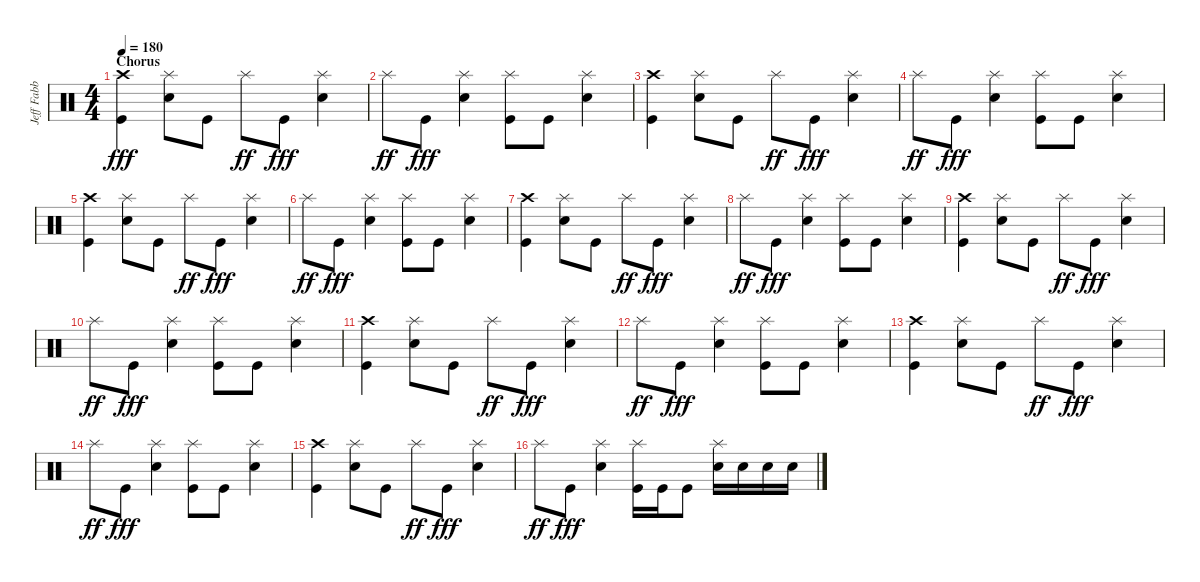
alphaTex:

\track ("Jeff Fabb (Drums)" "Jeff Fabb ") {instrument percussion}
\staff {score}
\articulation defaults
\ts (4 4)
\section ("" "Chorus")
\tempo 180
\clef neutral
\ks c
("Crash high (hit)" "Kick (hit)").4{dy fff} ("Splash (hit)" "Electric Snare (hit)").8 "Kick (hit)".8 "Splash (hit)".8{dy ff} "Kick (hit)".8{dy fff} ("Splash (hit)" "Electric Snare (hit)").4 |
"Splash (hit)".8{dy ff} "Kick (hit)".8{dy fff} ("Splash (hit)" "Electric Snare (hit)").4 ("Splash (hit)" "Kick (hit)").8 "Kick (hit)".8 ("Splash (hit)" "Electric Snare (hit)").4 |
("Crash high (hit)" "Kick (hit)").4 ("Splash (hit)" "Electric Snare (hit)").8 "Kick (hit)".8 "Splash (hit)".8{dy ff} "Kick (hit)".8{dy fff} ("Splash (hit)" "Electric Snare (hit)").4 |
"Splash (hit)".8{dy ff} "Kick (hit)".8{dy fff} ("Splash (hit)" "Electric Snare (hit)").4 ("Splash (hit)" "Kick (hit)").8 "Kick (hit)".8 ("Splash (hit)" "Electric Snare (hit)").4 |
("Crash high (hit)" "Kick (hit)").4 ("Splash (hit)" "Electric Snare (hit)").8 "Kick (hit)".8 "Splash (hit)".8{dy ff} "Kick (hit)".8{dy fff} ("Splash (hit)" "Electric Snare (hit)").4 |
"Splash (hit)".8{dy ff} "Kick (hit)".8{dy fff} ("Splash (hit)" "Electric Snare (hit)").4 ("Splash (hit)" "Kick (hit)").8 "Kick (hit)".8 ("Splash (hit)" "Electric Snare (hit)").4 |
("Crash high (hit)" "Kick (hit)").4 ("Splash (hit)" "Electric Snare (hit)").8 "Kick (hit)".8 "Splash (hit)".8{dy ff} "Kick (hit)".8{dy fff} ("Splash (hit)" "Electric Snare (hit)").4 |
"Splash (hit)".8{dy ff} "Kick (hit)".8{dy fff} ("Splash (hit)" "Electric Snare (hit)").4 ("Splash (hit)" "Kick (hit)").8 "Kick (hit)".8 ("Splash (hit)" "Electric Snare (hit)").4 |
("Crash high (hit)" "Kick (hit)").4 ("Splash (hit)" "Electric Snare (hit)").8 "Kick (hit)".8 "Splash (hit)".8{dy ff} "Kick (hit)".8{dy fff} ("Splash (hit)" "Electric Snare (hit)").4 |
"Splash (hit)".8{dy ff} "Kick (hit)".8{dy fff} ("Splash (hit)" "Electric Snare (hit)").4 ("Splash (hit)" "Kick (hit)").8 "Kick (hit)".8 ("Splash (hit)" "Electric Snare (hit)").4 |
("Crash high (hit)" "Kick (hit)").4 ("Splash (hit)" "Electric Snare (hit)").8 "Kick (hit)".8 "Splash (hit)".8{dy ff} "Kick (hit)".8{dy fff} ("Splash (hit)" "Electric Snare (hit)").4 |
"Splash (hit)".8{dy ff} "Kick (hit)".8{dy fff} ("Splash (hit)" "Electric Snare (hit)").4 ("Splash (hit)" "Kick (hit)").8 "Kick (hit)".8 ("Splash (hit)" "Electric Snare (hit)").4 |
("Crash high (hit)" "Kick (hit)").4 ("Splash (hit)" "Electric Snare (hit)").8 "Kick (hit)".8 "Splash (hit)".8{dy ff} "Kick (hit)".8{dy fff} ("Splash (hit)" "Electric Snare (hit)").4 |
"Splash (hit)".8{dy ff} "Kick (hit)".8{dy fff} ("Splash (hit)" "Electric Snare (hit)").4 ("Splash (hit)" "Kick (hit)").8 "Kick (hit)".8 ("Splash (hit)" "Electric Snare (hit)").4 |
("Crash high (hit)" "Kick (hit)").4 ("Splash (hit)" "Electric Snare (hit)").8 "Kick (hit)".8 "Splash (hit)".8{dy ff} "Kick (hit)".8{dy fff} ("Splash (hit)" "Electric Snare (hit)").4 |
"Splash (hit)".8{dy ff} "Kick (hit)".8{dy fff} ("Splash (hit)" "Electric Snare (hit)").4 ("Splash (hit)" "Kick (hit)").16 "Kick (hit)".16 "Kick (hit)".8 ("Splash (hit)" "Electric Snare (hit)").16 "Electric Snare (hit)".16 "Electric Snare (hit)".16 "Electric Snare (hit)".16
